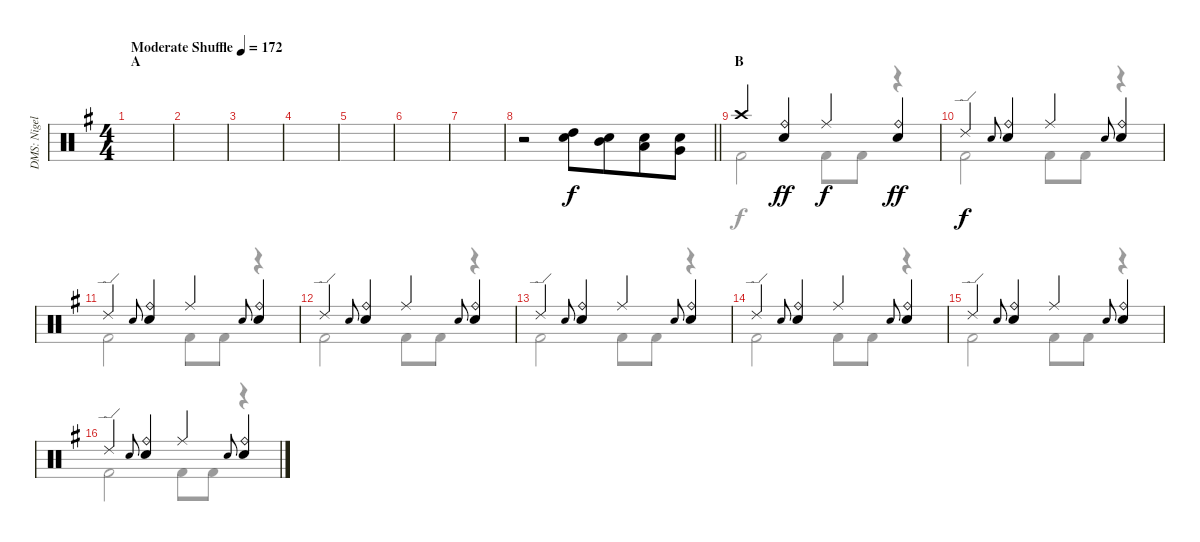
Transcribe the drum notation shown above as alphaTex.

\track ("DMS: Nigel Olsson" "DMS: Nigel") {instrument percussion}
\staff {score}
\articulation defaults
\voice
\ts (4 4)
\section ("" "A")
\tempo (172 "Moderate Shuffle")
\clef neutral
\ks g
|
|
|
|
|
|
|
\barLineRight lightlight
r.2 ("Electric Snare (hit)" "High Tom (hit)").8 ("Electric Snare (hit)" "Mid Tom (hit)").8{beam merge} ("Electric Snare (hit)" "Low Tom (hit)").8 ("Electric Snare (hit)" "Very Low Tom (hit)").8 |
\section ("" "B")
"Crash high (hit)".4 ("Ride (bell)" "Snare (hit) 2").4{dy ff} "Ride (middle)".4{dy f} ("Ride (bell)" "Snare (hit) 2").4{dy ff} |
"Ride (edge) 2".4{dy f} "Snare (hit) 2".8{gr onbeat} ("Ride (bell)" "Electric Snare (hit)").4 "Ride (middle)".4 "Snare (hit) 2".8{gr onbeat} ("Ride (bell)" "Electric Snare (hit)").4 |
"Ride (edge) 2".4 "Snare (hit) 2".8{gr onbeat} ("Ride (bell)" "Electric Snare (hit)").4 "Ride (middle)".4 "Snare (hit) 2".8{gr onbeat} ("Ride (bell)" "Electric Snare (hit)").4 |
"Ride (edge) 2".4 "Snare (hit) 2".8{gr onbeat} ("Ride (bell)" "Electric Snare (hit)").4 "Ride (middle)".4 "Snare (hit) 2".8{gr onbeat} ("Ride (bell)" "Electric Snare (hit)").4 |
"Ride (edge) 2".4 "Snare (hit) 2".8{gr onbeat} ("Ride (bell)" "Electric Snare (hit)").4 "Ride (middle)".4 "Snare (hit) 2".8{gr onbeat} ("Ride (bell)" "Electric Snare (hit)").4 |
"Ride (edge) 2".4 "Snare (hit) 2".8{gr onbeat} ("Ride (bell)" "Electric Snare (hit)").4 "Ride (middle)".4 "Snare (hit) 2".8{gr onbeat} ("Ride (bell)" "Electric Snare (hit)").4 |
"Ride (edge) 2".4 "Snare (hit) 2".8{gr onbeat} ("Ride (bell)" "Electric Snare (hit)").4 "Ride (middle)".4 "Snare (hit) 2".8{gr onbeat} ("Ride (bell)" "Electric Snare (hit)").4 |
"Ride (edge) 2".4 "Snare (hit) 2".8{gr onbeat} ("Ride (bell)" "Electric Snare (hit)").4 "Ride (middle)".4 "Snare (hit) 2".8{gr onbeat} ("Ride (bell)" "Electric Snare (hit)").4
\voice
\clef neutral
\ottava regular
\simile none
\ks g
|
|
|
|
|
|
|
\barLineRight lightlight
|
"Kick (hit) 2".2 "Kick (hit) 2".8 "Kick (hit) 2".8 r.4 |
"Kick (hit) 2".2 "Kick (hit) 2".8 "Kick (hit) 2".8 r.4 |
"Kick (hit) 2".2 "Kick (hit) 2".8 "Kick (hit) 2".8 r.4 |
"Kick (hit) 2".2 "Kick (hit) 2".8 "Kick (hit) 2".8 r.4 |
"Kick (hit) 2".2 "Kick (hit) 2".8 "Kick (hit) 2".8 r.4 |
"Kick (hit) 2".2 "Kick (hit) 2".8 "Kick (hit) 2".8 r.4 |
"Kick (hit) 2".2 "Kick (hit) 2".8 "Kick (hit) 2".8 r.4 |
"Kick (hit) 2".2 "Kick (hit) 2".8 "Kick (hit) 2".8 r.4
